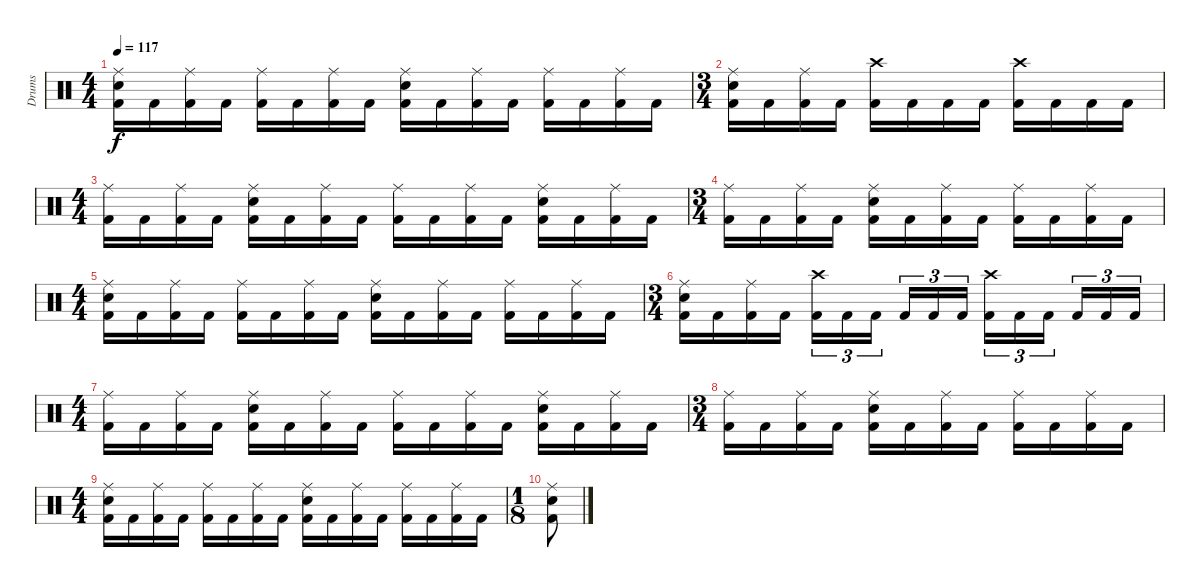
\track ("Drums" "Drums") {instrument percussion}
\staff {score}
\articulation defaults
\ts (4 4)
\tempo 117
\clef neutral
\ks c
("Ride (middle)" "Electric Snare (hit)" "Kick (hit) 2").16{dy f} "Kick (hit) 2".16 ("Ride (middle)" "Kick (hit) 2").16 "Kick (hit) 2".16 ("Ride (middle)" "Kick (hit) 2").16 "Kick (hit) 2".16 ("Ride (middle)" "Kick (hit) 2").16 "Kick (hit) 2".16 ("Ride (middle)" "Electric Snare (hit)" "Kick (hit) 2").16 "Kick (hit) 2".16 ("Ride (middle)" "Kick (hit) 2").16 "Kick (hit) 2".16 ("Ride (middle)" "Kick (hit) 2").16 "Kick (hit) 2".16 ("Ride (middle)" "Kick (hit) 2").16 "Kick (hit) 2".16 |
\ts (3 4)
("Ride (middle)" "Electric Snare (hit)" "Kick (hit) 2").16 "Kick (hit) 2".16 ("Ride (middle)" "Kick (hit) 2").16 "Kick (hit) 2".16 ("Crash high (hit)" "Kick (hit) 2").16 "Kick (hit) 2".16 "Kick (hit) 2".16 "Kick (hit) 2".16 ("Crash high (hit)" "Kick (hit) 2").16 "Kick (hit) 2".16 "Kick (hit) 2".16 "Kick (hit) 2".16 |
\ts (4 4)
("Ride (middle)" "Kick (hit) 2").16 "Kick (hit) 2".16 ("Ride (middle)" "Kick (hit) 2").16 "Kick (hit) 2".16 ("Ride (middle)" "Electric Snare (hit)" "Kick (hit) 2").16 "Kick (hit) 2".16 ("Ride (middle)" "Kick (hit) 2").16 "Kick (hit) 2".16 ("Ride (middle)" "Kick (hit) 2").16 "Kick (hit) 2".16 ("Ride (middle)" "Kick (hit) 2").16 "Kick (hit) 2".16 ("Ride (middle)" "Electric Snare (hit)" "Kick (hit) 2").16 "Kick (hit) 2".16 ("Ride (middle)" "Kick (hit) 2").16 "Kick (hit) 2".16 |
\ts (3 4)
("Ride (middle)" "Kick (hit) 2").16 "Kick (hit) 2".16 ("Ride (middle)" "Kick (hit) 2").16 "Kick (hit) 2".16 ("Ride (middle)" "Electric Snare (hit)" "Kick (hit) 2").16 "Kick (hit) 2".16 ("Ride (middle)" "Kick (hit) 2").16 "Kick (hit) 2".16 ("Ride (middle)" "Kick (hit) 2").16 "Kick (hit) 2".16 ("Ride (middle)" "Kick (hit) 2").16 "Kick (hit) 2".16 |
\ts (4 4)
("Ride (middle)" "Electric Snare (hit)" "Kick (hit) 2").16 "Kick (hit) 2".16 ("Ride (middle)" "Kick (hit) 2").16 "Kick (hit) 2".16 ("Ride (middle)" "Kick (hit) 2").16 "Kick (hit) 2".16 ("Ride (middle)" "Kick (hit) 2").16 "Kick (hit) 2".16 ("Ride (middle)" "Electric Snare (hit)" "Kick (hit) 2").16 "Kick (hit) 2".16 ("Ride (middle)" "Kick (hit) 2").16 "Kick (hit) 2".16 ("Ride (middle)" "Kick (hit) 2").16 "Kick (hit) 2".16 ("Ride (middle)" "Kick (hit) 2").16 "Kick (hit) 2".16 |
\ts (3 4)
("Ride (middle)" "Electric Snare (hit)" "Kick (hit) 2").16 "Kick (hit) 2".16 ("Ride (middle)" "Kick (hit) 2").16 "Kick (hit) 2".16 ("Crash high (hit)" "Kick (hit) 2").16{tu (3 2)} "Kick (hit) 2".16{tu (3 2)} "Kick (hit) 2".16{tu (3 2)} "Kick (hit) 2".16{tu (3 2)} "Kick (hit) 2".16{tu (3 2)} "Kick (hit) 2".16{tu (3 2)} ("Crash high (hit)" "Kick (hit) 2").16{tu (3 2)} "Kick (hit) 2".16{tu (3 2)} "Kick (hit) 2".16{tu (3 2)} "Kick (hit) 2".16{tu (3 2)} "Kick (hit) 2".16{tu (3 2)} "Kick (hit) 2".16{tu (3 2)} |
\ts (4 4)
("Ride (middle)" "Kick (hit) 2").16 "Kick (hit) 2".16 ("Ride (middle)" "Kick (hit) 2").16 "Kick (hit) 2".16 ("Ride (middle)" "Electric Snare (hit)" "Kick (hit) 2").16 "Kick (hit) 2".16 ("Ride (middle)" "Kick (hit) 2").16 "Kick (hit) 2".16 ("Ride (middle)" "Kick (hit) 2").16 "Kick (hit) 2".16 ("Ride (middle)" "Kick (hit) 2").16 "Kick (hit) 2".16 ("Ride (middle)" "Electric Snare (hit)" "Kick (hit) 2").16 "Kick (hit) 2".16 ("Ride (middle)" "Kick (hit) 2").16 "Kick (hit) 2".16 |
\ts (3 4)
("Ride (middle)" "Kick (hit) 2").16 "Kick (hit) 2".16 ("Ride (middle)" "Kick (hit) 2").16 "Kick (hit) 2".16 ("Ride (middle)" "Electric Snare (hit)" "Kick (hit) 2").16 "Kick (hit) 2".16 ("Ride (middle)" "Kick (hit) 2").16 "Kick (hit) 2".16 ("Ride (middle)" "Kick (hit) 2").16 "Kick (hit) 2".16 ("Ride (middle)" "Kick (hit) 2").16 "Kick (hit) 2".16 |
\ts (4 4)
("Ride (middle)" "Electric Snare (hit)" "Kick (hit) 2").16 "Kick (hit) 2".16 ("Ride (middle)" "Kick (hit) 2").16 "Kick (hit) 2".16 ("Ride (middle)" "Kick (hit) 2").16 "Kick (hit) 2".16 ("Ride (middle)" "Kick (hit) 2").16 "Kick (hit) 2".16 ("Ride (middle)" "Electric Snare (hit)" "Kick (hit) 2").16 "Kick (hit) 2".16 ("Ride (middle)" "Kick (hit) 2").16 "Kick (hit) 2".16 ("Ride (middle)" "Kick (hit) 2").16 "Kick (hit) 2".16 ("Ride (middle)" "Kick (hit) 2").16 "Kick (hit) 2".16 |
\ts (1 8)
("Ride (middle)" "Electric Snare (hit)" "Kick (hit) 2").8
